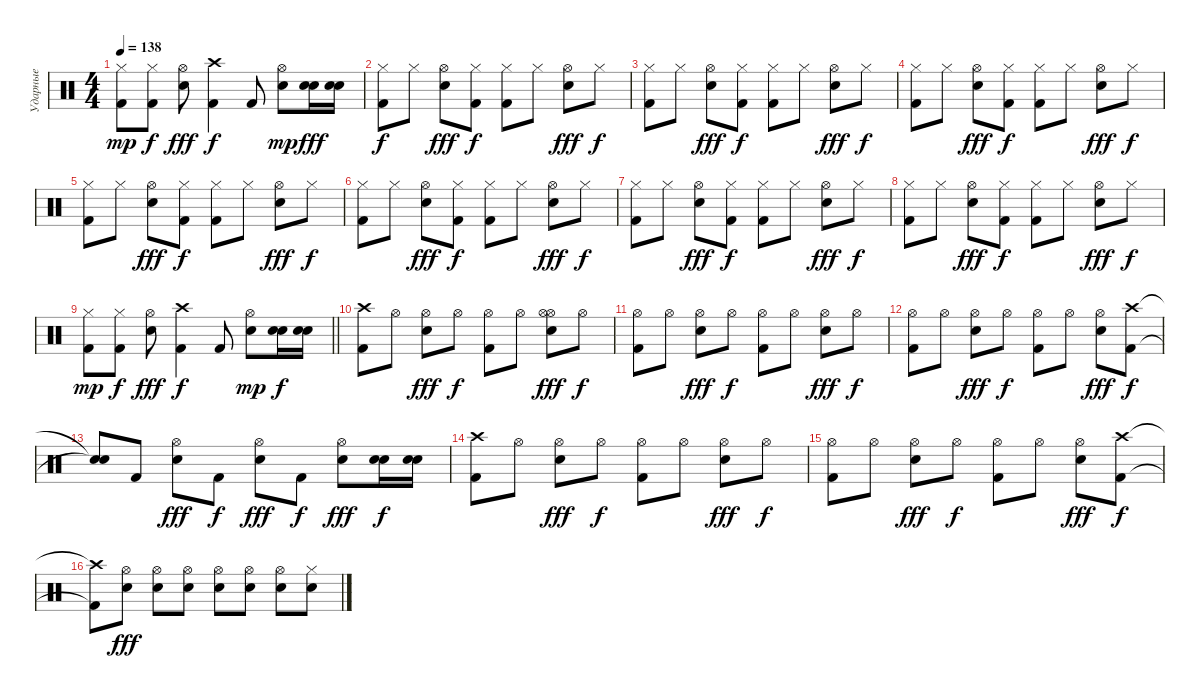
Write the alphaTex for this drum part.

\track ("Ударные" "Ударные") {instrument percussion}
\staff {score}
\articulation defaults
\ts (4 4)
\tempo 138
\clef neutral
\ks c
("Hi-Hat (closed)" "Kick (hit) 2").8{dy mp} ("Hi-Hat (closed)" "Kick (hit) 2").8{dy f} ("Hi-Hat (open)" "Electric Snare (hit)").8{dy fff} ("Crash high (hit)" "Kick (hit) 2").4{dy f} "Kick (hit) 2".8 ("Hi-Hat (open)" "Electric Snare (hit)").8{dy mp} ("Electric Snare (hit)" "Electric Snare (hit)").16{dy fff} ("Electric Snare (hit)" "Electric Snare (hit)").16 |
("Hi-Hat (closed)" "Kick (hit) 2").8{dy f} "Hi-Hat (closed)".8 ("Hi-Hat (open)" "Electric Snare (hit)").8{dy fff} ("Hi-Hat (closed)" "Kick (hit) 2").8{dy f} ("Hi-Hat (closed)" "Kick (hit) 2").8 "Hi-Hat (closed)".8 ("Hi-Hat (open)" "Electric Snare (hit)").8{dy fff} "Hi-Hat (closed)".8{dy f} |
("Hi-Hat (closed)" "Kick (hit) 2").8 "Hi-Hat (closed)".8 ("Hi-Hat (open)" "Electric Snare (hit)").8{dy fff} ("Hi-Hat (closed)" "Kick (hit) 2").8{dy f} ("Hi-Hat (closed)" "Kick (hit) 2").8 "Hi-Hat (closed)".8 ("Hi-Hat (open)" "Electric Snare (hit)").8{dy fff} "Hi-Hat (closed)".8{dy f} |
("Hi-Hat (closed)" "Kick (hit) 2").8 "Hi-Hat (closed)".8 ("Hi-Hat (open)" "Electric Snare (hit)").8{dy fff} ("Hi-Hat (closed)" "Kick (hit) 2").8{dy f} ("Hi-Hat (closed)" "Kick (hit) 2").8 "Hi-Hat (closed)".8 ("Hi-Hat (open)" "Electric Snare (hit)").8{dy fff} "Hi-Hat (closed)".8{dy f} |
("Hi-Hat (closed)" "Kick (hit) 2").8 "Hi-Hat (closed)".8 ("Hi-Hat (open)" "Electric Snare (hit)").8{dy fff} ("Hi-Hat (closed)" "Kick (hit) 2").8{dy f} ("Hi-Hat (closed)" "Kick (hit) 2").8 "Hi-Hat (closed)".8 ("Hi-Hat (open)" "Electric Snare (hit)").8{dy fff} "Hi-Hat (closed)".8{dy f} |
("Hi-Hat (closed)" "Kick (hit) 2").8 "Hi-Hat (closed)".8 ("Hi-Hat (open)" "Electric Snare (hit)").8{dy fff} ("Hi-Hat (closed)" "Kick (hit) 2").8{dy f} ("Hi-Hat (closed)" "Kick (hit) 2").8 "Hi-Hat (closed)".8 ("Hi-Hat (open)" "Electric Snare (hit)").8{dy fff} "Hi-Hat (closed)".8{dy f} |
("Hi-Hat (closed)" "Kick (hit) 2").8 "Hi-Hat (closed)".8 ("Hi-Hat (open)" "Electric Snare (hit)").8{dy fff} ("Hi-Hat (closed)" "Kick (hit) 2").8{dy f} ("Hi-Hat (closed)" "Kick (hit) 2").8 "Hi-Hat (closed)".8 ("Hi-Hat (open)" "Electric Snare (hit)").8{dy fff} "Hi-Hat (closed)".8{dy f} |
("Hi-Hat (closed)" "Kick (hit) 2").8 "Hi-Hat (closed)".8 ("Hi-Hat (open)" "Electric Snare (hit)").8{dy fff} ("Hi-Hat (closed)" "Kick (hit) 2").8{dy f} ("Hi-Hat (closed)" "Kick (hit) 2").8 "Hi-Hat (closed)".8 ("Hi-Hat (open)" "Electric Snare (hit)").8{dy fff} "Hi-Hat (closed)".8{dy f} |
\barLineRight lightlight
("Hi-Hat (closed)" "Kick (hit) 2").8{dy mp} ("Hi-Hat (closed)" "Kick (hit) 2").8{dy f} ("Hi-Hat (open)" "Electric Snare (hit)").8{dy fff} ("Crash high (hit)" "Kick (hit) 2").4{dy f} "Kick (hit) 2".8 ("Hi-Hat (open)" "Electric Snare (hit)").8{dy mp} ("Electric Snare (hit)" "Electric Snare (hit)").16{dy f} ("Electric Snare (hit)" "Electric Snare (hit)").16 |
("Crash high (hit)" "Kick (hit) 2").8 "Hi-Hat (open)".8 ("Hi-Hat (open)" "Electric Snare (hit)").8{dy fff} "Hi-Hat (open)".8{dy f} ("Hi-Hat (open)" "Kick (hit) 2").8 "Hi-Hat (open)".8 ("Hi-Hat (open)" "Hi-Hat (open)" "Electric Snare (hit)").8{dy fff} "Hi-Hat (open)".8{dy f} |
("Hi-Hat (open)" "Kick (hit) 2").8 "Hi-Hat (open)".8 ("Hi-Hat (open)" "Electric Snare (hit)").8{dy fff} "Hi-Hat (open)".8{dy f} ("Hi-Hat (open)" "Kick (hit) 2").8 "Hi-Hat (open)".8 ("Hi-Hat (open)" "Electric Snare (hit)").8{dy fff} "Hi-Hat (open)".8{dy f} |
("Hi-Hat (open)" "Kick (hit) 2").8 "Hi-Hat (open)".8 ("Hi-Hat (open)" "Electric Snare (hit)").8{dy fff} "Hi-Hat (open)".8{dy f} ("Hi-Hat (open)" "Kick (hit) 2").8 "Hi-Hat (open)".8 ("Hi-Hat (open)" "Electric Snare (hit)").8{dy fff} ("Crash high (hit)" "Kick (hit) 2").8{dy f} |
("Snare (hit)"{t} "Snare (hit)"{t}).8 "Kick (hit) 2".8 ("Hi-Hat (open)" "Electric Snare (hit)").8{dy fff} "Kick (hit) 2".8{dy f} ("Hi-Hat (open)" "Electric Snare (hit)").8{dy fff} "Kick (hit) 2".8{dy f} ("Hi-Hat (open)" "Electric Snare (hit)").8{dy fff} ("Electric Snare (hit)" "Electric Snare (hit)").16{dy f} ("Electric Snare (hit)" "Electric Snare (hit)").16 |
("Crash high (hit)" "Kick (hit) 2").8 "Hi-Hat (open)".8 ("Hi-Hat (open)" "Electric Snare (hit)").8{dy fff} "Hi-Hat (open)".8{dy f} ("Hi-Hat (open)" "Kick (hit) 2").8 "Hi-Hat (open)".8 ("Hi-Hat (open)" "Electric Snare (hit)").8{dy fff} "Hi-Hat (open)".8{dy f} |
("Hi-Hat (open)" "Kick (hit) 2").8 "Hi-Hat (open)".8 ("Hi-Hat (open)" "Electric Snare (hit)").8{dy fff} "Hi-Hat (open)".8{dy f} ("Hi-Hat (open)" "Kick (hit) 2").8 "Hi-Hat (open)".8 ("Hi-Hat (open)" "Electric Snare (hit)").8{dy fff} ("Crash high (hit)" "Kick (hit) 2").8{dy f} |
("Crash high (hit)"{t} "Kick (hit) 2"{t}).8 ("Hi-Hat (open)" "Electric Snare (hit)").8{dy fff} ("Hi-Hat (open)" "Electric Snare (hit)").8 ("Hi-Hat (open)" "Electric Snare (hit)").8 ("Hi-Hat (open)" "Electric Snare (hit)").8 ("Hi-Hat (open)" "Electric Snare (hit)").8 ("Hi-Hat (open)" "Electric Snare (hit)").8 ("Hi-Hat (closed)" "Electric Snare (hit)").8
